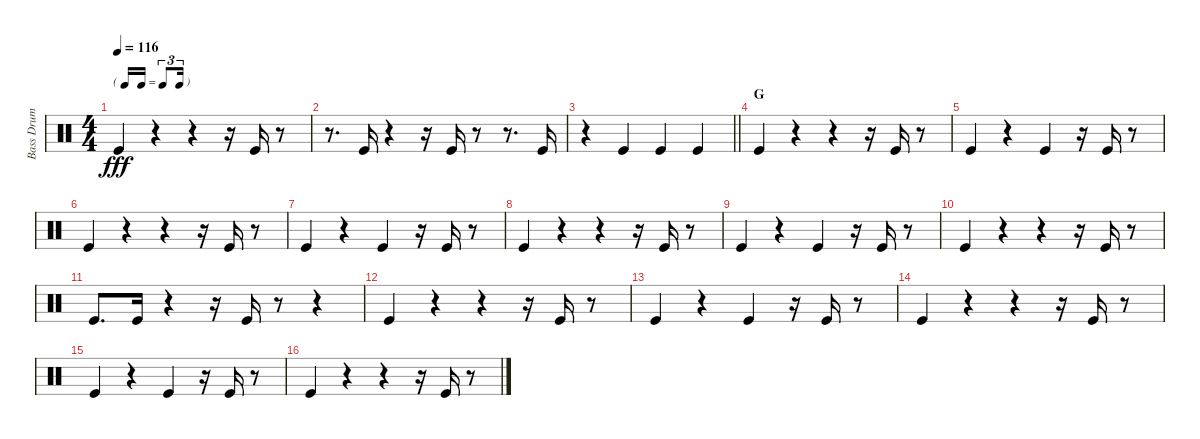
\track ("Bass Drum" "Bass Drum") {instrument percussion}
\staff {score}
\articulation defaults
\ts (4 4)
\tf triplet16th
\tempo 116
\clef neutral
\ks c "Kick (hit)".4{dy fff}
r.4 r.4 r.16 "Kick (hit)".16 r.8 |
r.8{d} "Kick (hit)".16 r.4 r.16 "Kick (hit)".16 r.8 r.8{d} "Kick (hit)".16 |
\barLineRight lightlight
r.4 "Kick (hit)".4 "Kick (hit)".4 "Kick (hit)".4 |
\section ("" "G")
"Kick (hit)".4 r.4 r.4 r.16 "Kick (hit)".16 r.8 |
"Kick (hit)".4 r.4 "Kick (hit)".4 r.16 "Kick (hit)".16 r.8 |
"Kick (hit)".4 r.4 r.4 r.16 "Kick (hit)".16 r.8 |
"Kick (hit)".4 r.4 "Kick (hit)".4 r.16 "Kick (hit)".16 r.8 |
"Kick (hit)".4 r.4 r.4 r.16 "Kick (hit)".16 r.8 |
"Kick (hit)".4 r.4 "Kick (hit)".4 r.16 "Kick (hit)".16 r.8 |
"Kick (hit)".4 r.4 r.4 r.16 "Kick (hit)".16 r.8 |
"Kick (hit)".8{d} "Kick (hit)".16 r.4 r.16 "Kick (hit)".16 r.8 r.4 |
"Kick (hit)".4 r.4 r.4 r.16 "Kick (hit)".16 r.8 |
"Kick (hit)".4 r.4 "Kick (hit)".4 r.16 "Kick (hit)".16 r.8 |
"Kick (hit)".4 r.4 r.4 r.16 "Kick (hit)".16 r.8 |
"Kick (hit)".4 r.4 "Kick (hit)".4 r.16 "Kick (hit)".16 r.8 |
"Kick (hit)".4 r.4 r.4 r.16 "Kick (hit)".16 r.8
